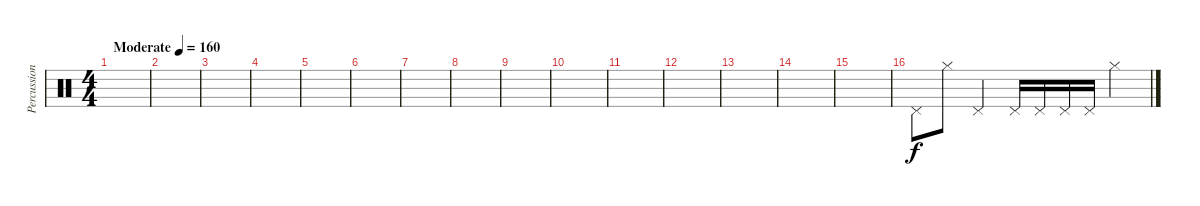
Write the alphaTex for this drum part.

\track ("Percussion" "Percussion") {instrument percussion}
\staff {score}
\articulation defaults
\ts (4 4)
\tempo (160 "Moderate")
\clef neutral
\ks c
|
|
|
|
|
|
|
|
|
|
|
|
|
|
|
"Pedal Hi-Hat (hit)".8 "Hi-Hat (closed)".8 "Pedal Hi-Hat (hit)".4 "Pedal Hi-Hat (hit)".16 "Pedal Hi-Hat (hit)".16 "Pedal Hi-Hat (hit)".16 "Pedal Hi-Hat (hit)".16 "Hi-Hat (closed)".4
